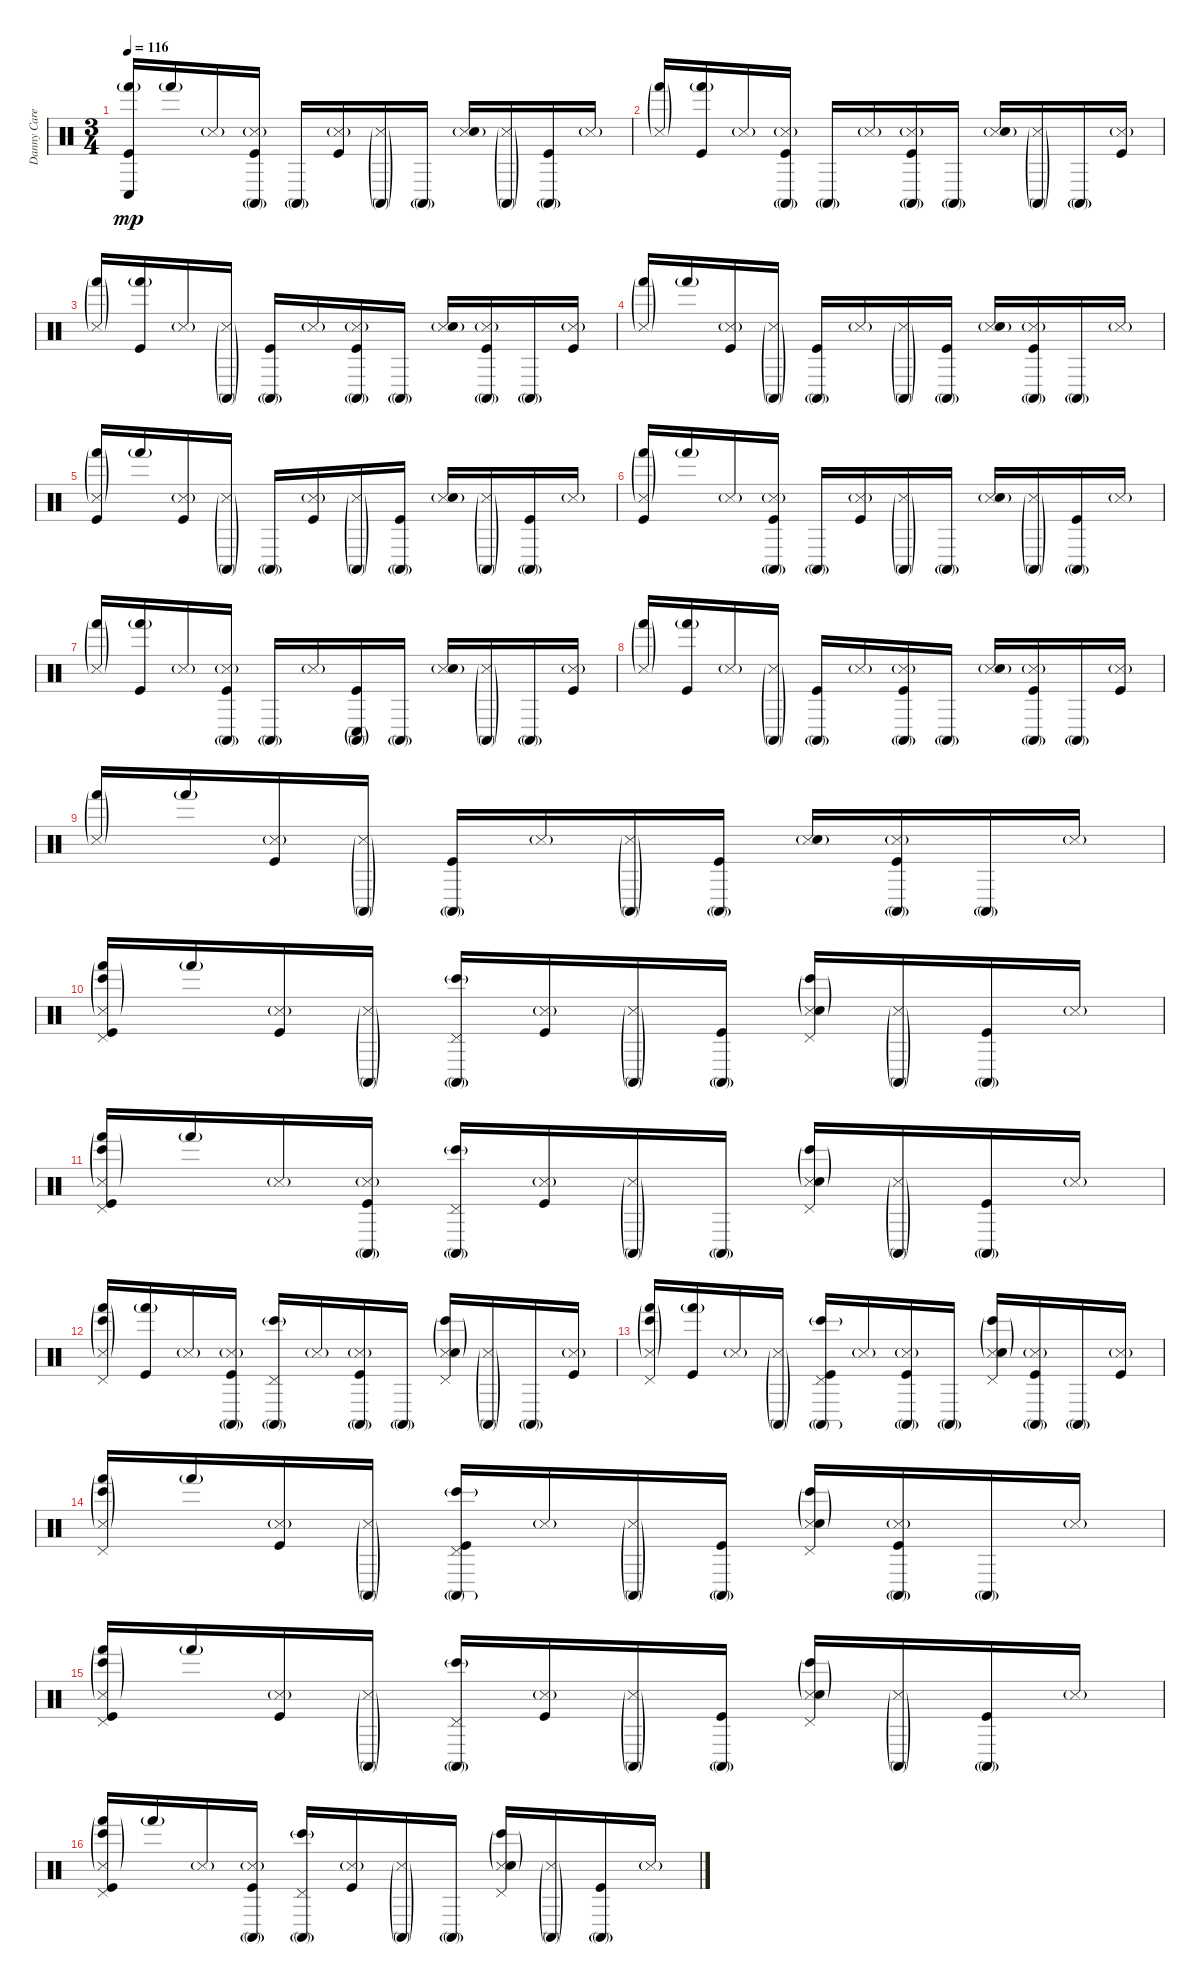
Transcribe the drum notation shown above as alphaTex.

\track ("Danny Carey (drum)" "Danny Care") {instrument percussion}
\staff {score}
\articulation defaults
\ts (3 4)
\tempo 116
\clef neutral
\ks c
("Hand (hit)"{g} "Conga low (hit)" "Kick (hit)").16{dy mp} "Hand (hit)"{g}.16 "Snare (side stick) 3"{g}.16 ("Conga high (mute)"{g} "Snare (side stick) 3"{g} "Kick (hit)").16 "Conga high (mute)"{g}.16 ("Snare (side stick) 3"{g} "Kick (hit)").16 ("Conga high (mute)"{g} "Snare (side stick) 3"{g}).16 "Conga high (mute)"{g}.16 ("Snare (side stick) 3"{g} "Snare (hit) 2").16 ("Conga high (mute)"{g} "Snare (side stick) 3"{g}).16 ("Conga high (mute)"{g} "Kick (hit)").16 "Snare (side stick) 3"{g}.16 |
("Hand (hit)"{g} "Snare (side stick) 3"{g}).16 ("Hand (hit)"{g} "Kick (hit)").16 "Snare (side stick) 3"{g}.16 ("Conga high (mute)"{g} "Snare (side stick) 3"{g} "Kick (hit)").16 "Conga high (mute)"{g}.16 "Snare (side stick) 3"{g}.16 ("Conga high (mute)"{g} "Snare (side stick) 3"{g} "Kick (hit)").16 "Conga high (mute)"{g}.16 ("Snare (side stick) 3"{g} "Snare (hit) 2").16 ("Conga high (mute)"{g} "Snare (side stick) 3"{g}).16 "Conga high (mute)"{g}.16 ("Snare (side stick) 3"{g} "Kick (hit)").16 |
("Hand (hit)"{g} "Snare (side stick) 3"{g}).16 ("Hand (hit)"{g} "Kick (hit)").16 "Snare (side stick) 3"{g}.16 ("Conga high (mute)"{g} "Snare (side stick) 3"{g}).16 ("Conga high (mute)"{g} "Kick (hit)").16 "Snare (side stick) 3"{g}.16 ("Conga high (mute)"{g} "Snare (side stick) 3"{g} "Kick (hit)").16 "Conga high (mute)"{g}.16 ("Snare (side stick) 3"{g} "Snare (hit) 2").16 ("Conga high (mute)"{g} "Snare (side stick) 3"{g} "Kick (hit)").16 "Conga high (mute)"{g}.16 ("Snare (side stick) 3"{g} "Kick (hit)").16 |
("Hand (hit)"{g} "Snare (side stick) 3"{g}).16 "Hand (hit)"{g}.16 ("Snare (side stick) 3"{g} "Kick (hit)").16 ("Conga high (mute)"{g} "Snare (side stick) 3"{g}).16 ("Conga high (mute)"{g} "Kick (hit)").16 "Snare (side stick) 3"{g}.16 ("Conga high (mute)"{g} "Snare (side stick) 3"{g}).16 ("Conga high (mute)"{g} "Kick (hit)").16 ("Snare (side stick) 3"{g} "Snare (hit) 2").16 ("Conga high (mute)"{g} "Snare (side stick) 3"{g} "Kick (hit)").16 "Conga high (mute)"{g}.16 "Snare (side stick) 3"{g}.16 |
("Hand (hit)"{g} "Snare (side stick) 3"{g} "Kick (hit)").16 "Hand (hit)"{g}.16 ("Snare (side stick) 3"{g} "Kick (hit)").16 ("Conga high (mute)"{g} "Snare (side stick) 3"{g}).16 "Conga high (mute)"{g}.16 ("Snare (side stick) 3"{g} "Kick (hit)").16 ("Conga high (mute)"{g} "Snare (side stick) 3"{g}).16 ("Conga high (mute)"{g} "Kick (hit)").16 ("Snare (side stick) 3"{g} "Snare (hit) 2").16 ("Conga high (mute)"{g} "Snare (side stick) 3"{g}).16 ("Conga high (mute)"{g} "Kick (hit)").16 "Snare (side stick) 3"{g}.16 |
("Hand (hit)"{g} "Snare (side stick) 3"{g} "Kick (hit)").16 "Hand (hit)"{g}.16 "Snare (side stick) 3"{g}.16 ("Conga high (mute)"{g} "Snare (side stick) 3"{g} "Kick (hit)").16 "Conga high (mute)"{g}.16 ("Snare (side stick) 3"{g} "Kick (hit)").16 ("Conga high (mute)"{g} "Snare (side stick) 3"{g}).16 "Conga high (mute)"{g}.16 ("Snare (side stick) 3"{g} "Snare (hit) 2").16 ("Conga high (mute)"{g} "Snare (side stick) 3"{g}).16 ("Conga high (mute)"{g} "Kick (hit)").16 "Snare (side stick) 3"{g}.16 |
("Hand (hit)"{g} "Snare (side stick) 3"{g}).16 ("Hand (hit)"{g} "Kick (hit)").16 "Snare (side stick) 3"{g}.16 ("Conga high (mute)"{g} "Snare (side stick) 3"{g} "Kick (hit)").16 "Conga high (mute)"{g}.16 "Snare (side stick) 3"{g}.16 ("Conga high (mute)"{g} "Conga low (hit)"{g} "Kick (hit)").16 "Conga high (mute)"{g}.16 ("Snare (side stick) 3"{g} "Snare (hit) 2").16 ("Conga high (mute)"{g} "Snare (side stick) 3"{g}).16 "Conga high (mute)"{g}.16 ("Snare (side stick) 3"{g} "Kick (hit)").16 |
("Hand (hit)"{g} "Snare (side stick) 3"{g}).16 ("Hand (hit)"{g} "Kick (hit)").16 "Snare (side stick) 3"{g}.16 ("Conga high (mute)"{g} "Snare (side stick) 3"{g}).16 ("Conga high (mute)"{g} "Kick (hit)").16 "Snare (side stick) 3"{g}.16 ("Conga high (mute)"{g} "Snare (side stick) 3"{g} "Kick (hit)").16 "Conga high (mute)"{g}.16 ("Snare (side stick) 3"{g} "Snare (hit) 2").16 ("Conga high (mute)"{g} "Snare (side stick) 3"{g} "Kick (hit)").16 "Conga high (mute)"{g}.16 ("Snare (side stick) 3"{g} "Kick (hit)").16 |
("Hand (hit)"{g} "Snare (side stick) 3"{g}).16 "Hand (hit)"{g}.16 ("Snare (side stick) 3"{g} "Kick (hit)").16 ("Conga high (mute)"{g} "Snare (side stick) 3"{g}).16 ("Conga high (mute)"{g} "Kick (hit)").16 "Snare (side stick) 3"{g}.16 ("Conga high (mute)"{g} "Snare (side stick) 3"{g}).16 ("Conga high (mute)"{g} "Kick (hit)").16 ("Snare (side stick) 3"{g} "Snare (hit) 2").16 ("Conga high (mute)"{g} "Snare (side stick) 3"{g} "Kick (hit)").16 "Conga high (mute)"{g}.16 "Snare (side stick) 3"{g}.16 |
("Hand (hit)"{g} "Pedal Hi-Hat (hit)" "Snare (side stick) 3"{g} "Bongo High (hit)"{g} "Kick (hit)").16 "Hand (hit)"{g}.16 ("Snare (side stick) 3"{g} "Kick (hit)").16 ("Conga high (mute)"{g} "Snare (side stick) 3"{g}).16 ("Conga high (mute)"{g} "Pedal Hi-Hat (hit)" "Bongo High (hit)"{g}).16 ("Snare (side stick) 3"{g} "Kick (hit)").16 ("Conga high (mute)"{g} "Snare (side stick) 3"{g}).16 ("Conga high (mute)"{g} "Kick (hit)").16 ("Pedal Hi-Hat (hit)" "Snare (side stick) 3"{g} "Snare (hit) 2" "Bongo High (hit)"{g}).16 ("Conga high (mute)"{g} "Snare (side stick) 3"{g}).16 ("Conga high (mute)"{g} "Kick (hit)").16 "Snare (side stick) 3"{g}.16 |
("Hand (hit)"{g} "Pedal Hi-Hat (hit)" "Snare (side stick) 3"{g} "Bongo High (hit)"{g} "Kick (hit)").16 "Hand (hit)"{g}.16 "Snare (side stick) 3"{g}.16 ("Conga high (mute)"{g} "Snare (side stick) 3"{g} "Kick (hit)").16 ("Conga high (mute)"{g} "Pedal Hi-Hat (hit)" "Bongo High (hit)"{g}).16 ("Snare (side stick) 3"{g} "Kick (hit)").16 ("Conga high (mute)"{g} "Snare (side stick) 3"{g}).16 "Conga high (mute)"{g}.16 ("Pedal Hi-Hat (hit)" "Snare (side stick) 3"{g} "Snare (hit) 2" "Bongo High (hit)"{g}).16 ("Conga high (mute)"{g} "Snare (side stick) 3"{g}).16 ("Conga high (mute)"{g} "Kick (hit)").16 "Snare (side stick) 3"{g}.16 |
("Hand (hit)"{g} "Pedal Hi-Hat (hit)" "Snare (side stick) 3"{g} "Bongo High (hit)"{g}).16 ("Hand (hit)"{g} "Kick (hit)").16 "Snare (side stick) 3"{g}.16 ("Conga high (mute)"{g} "Snare (side stick) 3"{g} "Kick (hit)").16 ("Conga high (mute)"{g} "Pedal Hi-Hat (hit)" "Bongo High (hit)"{g}).16 "Snare (side stick) 3"{g}.16 ("Conga high (mute)"{g} "Snare (side stick) 3"{g} "Kick (hit)").16 "Conga high (mute)"{g}.16 ("Pedal Hi-Hat (hit)" "Snare (side stick) 3"{g} "Snare (hit) 2" "Bongo High (hit)"{g}).16 ("Conga high (mute)"{g} "Snare (side stick) 3"{g}).16 "Conga high (mute)"{g}.16 ("Snare (side stick) 3"{g} "Kick (hit)").16 |
("Hand (hit)"{g} "Pedal Hi-Hat (hit)" "Snare (side stick) 3"{g} "Bongo High (hit)"{g}).16 ("Hand (hit)"{g} "Kick (hit)").16 "Snare (side stick) 3"{g}.16 ("Conga high (mute)"{g} "Snare (side stick) 3"{g}).16 ("Conga high (mute)"{g} "Pedal Hi-Hat (hit)" "Bongo High (hit)"{g} "Kick (hit)").16 "Snare (side stick) 3"{g}.16 ("Conga high (mute)"{g} "Snare (side stick) 3"{g} "Kick (hit)").16 "Conga high (mute)"{g}.16 ("Pedal Hi-Hat (hit)" "Snare (side stick) 3"{g} "Snare (hit) 2" "Bongo High (hit)"{g}).16 ("Conga high (mute)"{g} "Snare (side stick) 3"{g} "Kick (hit)").16 "Conga high (mute)"{g}.16 ("Snare (side stick) 3"{g} "Kick (hit)").16 |
("Hand (hit)"{g} "Pedal Hi-Hat (hit)" "Snare (side stick) 3"{g} "Bongo High (hit)"{g}).16 "Hand (hit)"{g}.16 ("Snare (side stick) 3"{g} "Kick (hit)").16 ("Conga high (mute)"{g} "Snare (side stick) 3"{g}).16 ("Conga high (mute)"{g} "Pedal Hi-Hat (hit)" "Bongo High (hit)"{g} "Kick (hit)").16 "Snare (side stick) 3"{g}.16 ("Conga high (mute)"{g} "Snare (side stick) 3"{g}).16 ("Conga high (mute)"{g} "Kick (hit)").16 ("Pedal Hi-Hat (hit)" "Snare (side stick) 3"{g} "Snare (hit) 2" "Bongo High (hit)"{g}).16 ("Conga high (mute)"{g} "Snare (side stick) 3"{g} "Kick (hit)").16 "Conga high (mute)"{g}.16 "Snare (side stick) 3"{g}.16 |
("Hand (hit)"{g} "Pedal Hi-Hat (hit)" "Snare (side stick) 3"{g} "Bongo High (hit)"{g} "Kick (hit)").16 "Hand (hit)"{g}.16 ("Snare (side stick) 3"{g} "Kick (hit)").16 ("Conga high (mute)"{g} "Snare (side stick) 3"{g}).16 ("Conga high (mute)"{g} "Pedal Hi-Hat (hit)" "Bongo High (hit)"{g}).16 ("Snare (side stick) 3"{g} "Kick (hit)").16 ("Conga high (mute)"{g} "Snare (side stick) 3"{g}).16 ("Conga high (mute)"{g} "Kick (hit)").16 ("Pedal Hi-Hat (hit)" "Snare (side stick) 3"{g} "Snare (hit) 2" "Bongo High (hit)"{g}).16 ("Conga high (mute)"{g} "Snare (side stick) 3"{g}).16 ("Conga high (mute)"{g} "Kick (hit)").16 "Snare (side stick) 3"{g}.16 |
("Hand (hit)"{g} "Pedal Hi-Hat (hit)" "Snare (side stick) 3"{g} "Bongo High (hit)"{g} "Kick (hit)").16 "Hand (hit)"{g}.16 "Snare (side stick) 3"{g}.16 ("Conga high (mute)"{g} "Snare (side stick) 3"{g} "Kick (hit)").16 ("Conga high (mute)"{g} "Pedal Hi-Hat (hit)" "Bongo High (hit)"{g}).16 ("Snare (side stick) 3"{g} "Kick (hit)").16 ("Conga high (mute)"{g} "Snare (side stick) 3"{g}).16 "Conga high (mute)"{g}.16 ("Pedal Hi-Hat (hit)" "Snare (side stick) 3"{g} "Snare (hit) 2" "Bongo High (hit)"{g}).16 ("Conga high (mute)"{g} "Snare (side stick) 3"{g}).16 ("Conga high (mute)"{g} "Kick (hit)").16 "Snare (side stick) 3"{g}.16
